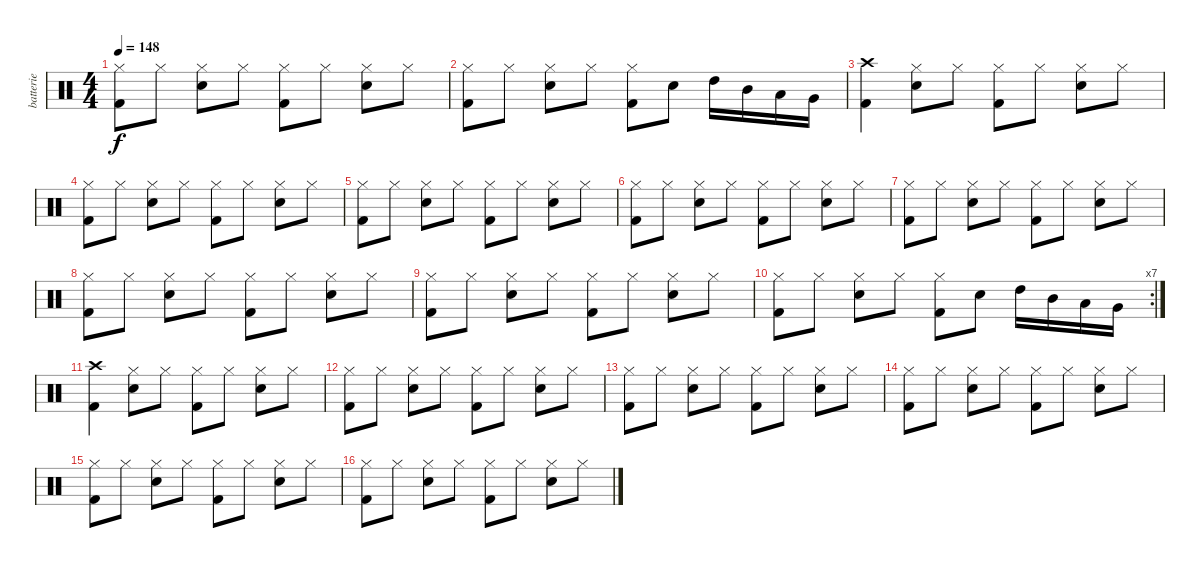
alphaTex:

\track ("batterie" "batterie") {instrument percussion}
\staff {score}
\articulation defaults
\ts (4 4)
\tempo 148
\clef neutral
\ks c
("Hi-Hat (closed)" "Kick (hit) 2").8{dy f} "Hi-Hat (closed)".8 ("Hi-Hat (closed)" "Snare (hit) 2").8 "Hi-Hat (closed)".8 ("Hi-Hat (closed)" "Kick (hit) 2").8 "Hi-Hat (closed)".8 ("Hi-Hat (closed)" "Snare (hit) 2").8 "Hi-Hat (closed)".8 |
("Hi-Hat (closed)" "Kick (hit) 2").8 "Hi-Hat (closed)".8 ("Hi-Hat (closed)" "Snare (hit) 2").8 "Hi-Hat (closed)".8 ("Hi-Hat (closed)" "Kick (hit) 2").8 "Snare (hit) 2".8 "High Tom (hit)".16 "Mid Tom (hit)".16 "Low Tom (hit)".16 "Very Low Tom (hit)".16 |
("Crash high (hit)" "Kick (hit) 2").4 ("Hi-Hat (closed)" "Snare (hit) 2").8 "Hi-Hat (closed)".8 ("Hi-Hat (closed)" "Kick (hit) 2").8 "Hi-Hat (closed)".8 ("Hi-Hat (closed)" "Snare (hit) 2").8 "Hi-Hat (closed)".8 |
("Hi-Hat (closed)" "Kick (hit) 2").8 "Hi-Hat (closed)".8 ("Hi-Hat (closed)" "Snare (hit) 2").8 "Hi-Hat (closed)".8 ("Hi-Hat (closed)" "Kick (hit) 2").8 "Hi-Hat (closed)".8 ("Hi-Hat (closed)" "Snare (hit) 2").8 "Hi-Hat (closed)".8 |
("Hi-Hat (closed)" "Kick (hit) 2").8 "Hi-Hat (closed)".8 ("Hi-Hat (closed)" "Snare (hit) 2").8 "Hi-Hat (closed)".8 ("Hi-Hat (closed)" "Kick (hit) 2").8 "Hi-Hat (closed)".8 ("Hi-Hat (closed)" "Snare (hit) 2").8 "Hi-Hat (closed)".8 |
("Hi-Hat (closed)" "Kick (hit) 2").8 "Hi-Hat (closed)".8 ("Hi-Hat (closed)" "Snare (hit) 2").8 "Hi-Hat (closed)".8 ("Hi-Hat (closed)" "Kick (hit) 2").8 "Hi-Hat (closed)".8 ("Hi-Hat (closed)" "Snare (hit) 2").8 "Hi-Hat (closed)".8 |
("Hi-Hat (closed)" "Kick (hit) 2").8 "Hi-Hat (closed)".8 ("Hi-Hat (closed)" "Snare (hit) 2").8 "Hi-Hat (closed)".8 ("Hi-Hat (closed)" "Kick (hit) 2").8 "Hi-Hat (closed)".8 ("Hi-Hat (closed)" "Snare (hit) 2").8 "Hi-Hat (closed)".8 |
("Hi-Hat (closed)" "Kick (hit) 2").8 "Hi-Hat (closed)".8 ("Hi-Hat (closed)" "Snare (hit) 2").8 "Hi-Hat (closed)".8 ("Hi-Hat (closed)" "Kick (hit) 2").8 "Hi-Hat (closed)".8 ("Hi-Hat (closed)" "Snare (hit) 2").8 "Hi-Hat (closed)".8 |
("Hi-Hat (closed)" "Kick (hit) 2").8 "Hi-Hat (closed)".8 ("Hi-Hat (closed)" "Snare (hit) 2").8 "Hi-Hat (closed)".8 ("Hi-Hat (closed)" "Kick (hit) 2").8 "Hi-Hat (closed)".8 ("Hi-Hat (closed)" "Snare (hit) 2").8 "Hi-Hat (closed)".8 |
\rc 7
("Hi-Hat (closed)" "Kick (hit) 2").8 "Hi-Hat (closed)".8 ("Hi-Hat (closed)" "Snare (hit) 2").8 "Hi-Hat (closed)".8 ("Hi-Hat (closed)" "Kick (hit) 2").8 "Snare (hit) 2".8 "High Tom (hit)".16 "Mid Tom (hit)".16 "Low Tom (hit)".16 "Very Low Tom (hit)".16 |
("Crash high (hit)" "Kick (hit) 2").4 ("Hi-Hat (closed)" "Snare (hit) 2").8 "Hi-Hat (closed)".8 ("Hi-Hat (closed)" "Kick (hit) 2").8 "Hi-Hat (closed)".8 ("Hi-Hat (closed)" "Snare (hit) 2").8 "Hi-Hat (closed)".8 |
("Hi-Hat (closed)" "Kick (hit) 2").8 "Hi-Hat (closed)".8 ("Hi-Hat (closed)" "Snare (hit) 2").8 "Hi-Hat (closed)".8 ("Hi-Hat (closed)" "Kick (hit) 2").8 "Hi-Hat (closed)".8 ("Hi-Hat (closed)" "Snare (hit) 2").8 "Hi-Hat (closed)".8 |
("Hi-Hat (closed)" "Kick (hit) 2").8 "Hi-Hat (closed)".8 ("Hi-Hat (closed)" "Snare (hit) 2").8 "Hi-Hat (closed)".8 ("Hi-Hat (closed)" "Kick (hit) 2").8 "Hi-Hat (closed)".8 ("Hi-Hat (closed)" "Snare (hit) 2").8 "Hi-Hat (closed)".8 |
("Hi-Hat (closed)" "Kick (hit) 2").8 "Hi-Hat (closed)".8 ("Hi-Hat (closed)" "Snare (hit) 2").8 "Hi-Hat (closed)".8 ("Hi-Hat (closed)" "Kick (hit) 2").8 "Hi-Hat (closed)".8 ("Hi-Hat (closed)" "Snare (hit) 2").8 "Hi-Hat (closed)".8 |
("Hi-Hat (closed)" "Kick (hit) 2").8 "Hi-Hat (closed)".8 ("Hi-Hat (closed)" "Snare (hit) 2").8 "Hi-Hat (closed)".8 ("Hi-Hat (closed)" "Kick (hit) 2").8 "Hi-Hat (closed)".8 ("Hi-Hat (closed)" "Snare (hit) 2").8 "Hi-Hat (closed)".8 |
("Hi-Hat (closed)" "Kick (hit) 2").8 "Hi-Hat (closed)".8 ("Hi-Hat (closed)" "Snare (hit) 2").8 "Hi-Hat (closed)".8 ("Hi-Hat (closed)" "Kick (hit) 2").8 "Hi-Hat (closed)".8 ("Hi-Hat (closed)" "Snare (hit) 2").8 "Hi-Hat (closed)".8
